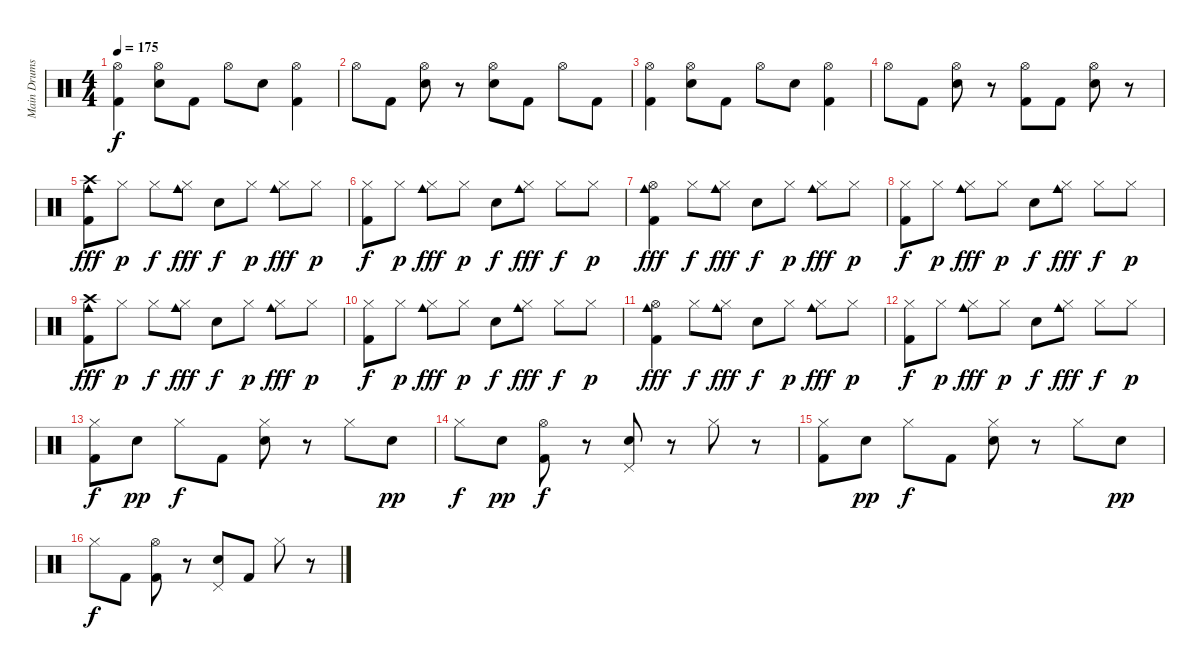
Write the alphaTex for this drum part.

\track ("Main Drums" "Main Drums") {instrument percussion}
\staff {score}
\articulation defaults
\ts (4 4)
\tempo 175
\clef neutral
\ks c
("Hi-Hat (open)" "Kick (hit) 2").4{dy f} ("Hi-Hat (open)" "Electric Snare (hit)").8 "Kick (hit) 2".8 "Hi-Hat (open)".8 "Electric Snare (hit)".8 ("Hi-Hat (open)" "Kick (hit) 2").4 |
"Hi-Hat (open)".8 "Kick (hit) 2".8 ("Hi-Hat (open)" "Electric Snare (hit)").8 r.8 ("Hi-Hat (open)" "Electric Snare (hit)").8 "Kick (hit) 2".8 "Hi-Hat (open)".8 "Kick (hit) 2".8 |
("Hi-Hat (open)" "Kick (hit) 2").4 ("Hi-Hat (open)" "Electric Snare (hit)").8 "Kick (hit) 2".8 "Hi-Hat (open)".8 "Electric Snare (hit)".8 ("Hi-Hat (open)" "Kick (hit) 2").4 |
"Hi-Hat (open)".8 "Kick (hit) 2".8 ("Hi-Hat (open)" "Electric Snare (hit)").8 r.8 ("Hi-Hat (open)" "Kick (hit) 2").8 "Kick (hit) 2".8 ("Hi-Hat (open)" "Electric Snare (hit)").8 r.8 |
("Crash high (hit)" "Cowbell medium (hit)" "Kick (hit) 2").8{dy fff} "Hi-Hat (closed)".8{dy p} "Hi-Hat (closed)".8{dy f} ("Hi-Hat (closed)" "Cowbell medium (hit)").8{dy fff} "Electric Snare (hit)".8{dy f} "Hi-Hat (closed)".8{dy p} ("Hi-Hat (closed)" "Cowbell medium (hit)").8{dy fff} "Hi-Hat (closed)".8{dy p} |
("Hi-Hat (closed)" "Kick (hit) 2").8{dy f} "Hi-Hat (closed)".8{dy p} ("Hi-Hat (closed)" "Cowbell medium (hit)").8{dy fff} "Hi-Hat (closed)".8{dy p} "Electric Snare (hit)".8{dy f} ("Hi-Hat (closed)" "Cowbell medium (hit)").8{dy fff} "Hi-Hat (closed)".8{dy f} "Hi-Hat (closed)".8{dy p} |
("Hi-Hat (open)" "Cowbell medium (hit)" "Kick (hit) 2").4{dy fff} "Hi-Hat (closed)".8{dy f} ("Hi-Hat (closed)" "Cowbell medium (hit)").8{dy fff} "Electric Snare (hit)".8{dy f} "Hi-Hat (closed)".8{dy p} ("Hi-Hat (closed)" "Cowbell medium (hit)").8{dy fff} "Hi-Hat (closed)".8{dy p} |
("Hi-Hat (closed)" "Kick (hit) 2").8{dy f} "Hi-Hat (closed)".8{dy p} ("Hi-Hat (closed)" "Cowbell medium (hit)").8{dy fff} "Hi-Hat (closed)".8{dy p} "Electric Snare (hit)".8{dy f} ("Hi-Hat (closed)" "Cowbell medium (hit)").8{dy fff} "Hi-Hat (closed)".8{dy f} "Hi-Hat (closed)".8{dy p} |
("Crash high (hit)" "Cowbell medium (hit)" "Kick (hit) 2").8{dy fff} "Hi-Hat (closed)".8{dy p} "Hi-Hat (closed)".8{dy f} ("Hi-Hat (closed)" "Cowbell medium (hit)").8{dy fff} "Electric Snare (hit)".8{dy f} "Hi-Hat (closed)".8{dy p} ("Hi-Hat (closed)" "Cowbell medium (hit)").8{dy fff} "Hi-Hat (closed)".8{dy p} |
("Hi-Hat (closed)" "Kick (hit) 2").8{dy f} "Hi-Hat (closed)".8{dy p} ("Hi-Hat (closed)" "Cowbell medium (hit)").8{dy fff} "Hi-Hat (closed)".8{dy p} "Electric Snare (hit)".8{dy f} ("Hi-Hat (closed)" "Cowbell medium (hit)").8{dy fff} "Hi-Hat (closed)".8{dy f} "Hi-Hat (closed)".8{dy p} |
("Hi-Hat (open)" "Cowbell medium (hit)" "Kick (hit) 2").4{dy fff} "Hi-Hat (closed)".8{dy f} ("Hi-Hat (closed)" "Cowbell medium (hit)").8{dy fff} "Electric Snare (hit)".8{dy f} "Hi-Hat (closed)".8{dy p} ("Hi-Hat (closed)" "Cowbell medium (hit)").8{dy fff} "Hi-Hat (closed)".8{dy p} |
("Hi-Hat (closed)" "Kick (hit) 2").8{dy f} "Hi-Hat (closed)".8{dy p} ("Hi-Hat (closed)" "Cowbell medium (hit)").8{dy fff} "Hi-Hat (closed)".8{dy p} "Electric Snare (hit)".8{dy f} ("Hi-Hat (closed)" "Cowbell medium (hit)").8{dy fff} "Hi-Hat (closed)".8{dy f} "Hi-Hat (closed)".8{dy p} |
("Hi-Hat (closed)" "Kick (hit) 2").8{dy f} "Electric Snare (hit)".8{dy pp} "Hi-Hat (closed)".8{dy f} "Kick (hit) 2".8 ("Hi-Hat (closed)" "Electric Snare (hit)").8 r.8 "Hi-Hat (closed)".8 "Electric Snare (hit)".8{dy pp} |
"Hi-Hat (closed)".8{dy f} "Electric Snare (hit)".8{dy pp} ("Hi-Hat (open)" "Kick (hit) 2").8{dy f} r.8 ("Pedal Hi-Hat (hit)" "Electric Snare (hit)").8 r.8 "Hi-Hat (closed)".8 r.8 |
("Hi-Hat (closed)" "Kick (hit) 2").8 "Electric Snare (hit)".8{dy pp} "Hi-Hat (closed)".8{dy f} "Kick (hit) 2".8 ("Hi-Hat (closed)" "Electric Snare (hit)").8 r.8 "Hi-Hat (closed)".8 "Electric Snare (hit)".8{dy pp} |
"Hi-Hat (closed)".8{dy f} "Kick (hit) 2".8 ("Hi-Hat (open)" "Kick (hit) 2").8 r.8 ("Pedal Hi-Hat (hit)" "Electric Snare (hit)").8 "Kick (hit) 2".8 "Hi-Hat (closed)".8 r.8
